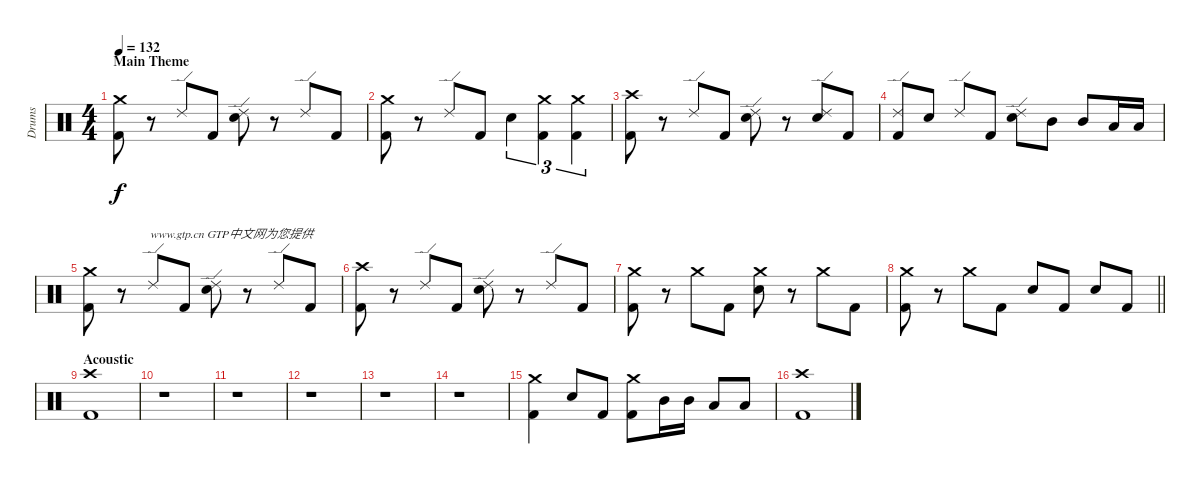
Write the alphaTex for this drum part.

\track ("Drums" "Drums") {instrument percussion}
\staff {score}
\articulation defaults
\ts (4 4)
\section ("" "Main Theme")
\tempo 132
\clef neutral
\ks c
("Crash medium (hit)" "Kick (hit) 2").8{dy f} r.8 "Ride (edge) 2".8 "Kick (hit) 2".8 ("Ride (edge) 2" "Snare (hit) 2").8 r.8 "Ride (edge) 2".8 "Kick (hit) 2".8 |
("Crash medium (hit)" "Kick (hit) 2").8 r.8 "Ride (edge) 2".8 "Kick (hit) 2".8 "Snare (hit) 2".4{tu (3 2)} ("Crash medium (hit)" "Kick (hit) 2").4{tu (3 2)} ("Crash medium (hit)" "Kick (hit) 2").4{tu (3 2)} |
("Crash high (hit)" "Kick (hit) 2").8 r.8 "Ride (edge) 2".8 "Kick (hit) 2".8 ("Ride (edge) 2" "Snare (hit) 2").8 r.8 ("Ride (edge) 2" "Snare (hit) 2").8 "Kick (hit) 2".8 |
("Ride (edge) 2" "Kick (hit) 2").8 "Snare (hit) 2".8 "Ride (edge) 2".8 "Kick (hit) 2".8 ("Ride (edge) 2" "Snare (hit) 2").8 "Mid Tom (hit)".8 "Mid Tom (hit)".8 "Low Tom (hit)".16 "Low Tom (hit)".16 |
("Crash medium (hit)" "Kick (hit) 2").8{txt "                    www.gtp.cn GTP中文网为您提供"} r.8 "Ride (edge) 2".8 "Kick (hit) 2".8 ("Ride (edge) 2" "Snare (hit) 2").8 r.8 "Ride (edge) 2".8 "Kick (hit) 2".8 |
("Crash high (hit)" "Kick (hit) 2").8 r.8 "Ride (edge) 2".8 "Kick (hit) 2".8 ("Ride (edge) 2" "Snare (hit) 2").8 r.8 "Ride (edge) 2".8 "Kick (hit) 2".8 |
("Crash medium (hit)" "Kick (hit) 2").8 r.8 "Crash medium (hit)".8 "Kick (hit) 2".8 ("Crash medium (hit)" "Snare (hit) 2").8 r.8 "Crash medium (hit)".8 "Kick (hit) 2".8 |
\barLineRight lightlight
("Crash medium (hit)" "Kick (hit) 2").8 r.8 "Crash medium (hit)".8 "Kick (hit) 2".8 "Snare (hit) 2".8 "Kick (hit) 2".8 "Snare (hit) 2".8 "Kick (hit) 2".8 |
\section ("" "Acoustic")
("Crash high (hit)" "Kick (hit) 2").1 |
r.1 |
r.1 |
r.1 |
r.1 |
r.1 |
("Crash medium (hit)" "Kick (hit) 2").4 "Snare (hit) 2".8 "Kick (hit) 2".8 ("Crash medium (hit)" "Kick (hit) 2").8 "Mid Tom (hit)".16 "Mid Tom (hit)".16 "Low Tom (hit)".8 "Low Tom (hit)".8 |
("Crash high (hit)" "Kick (hit) 2").1
